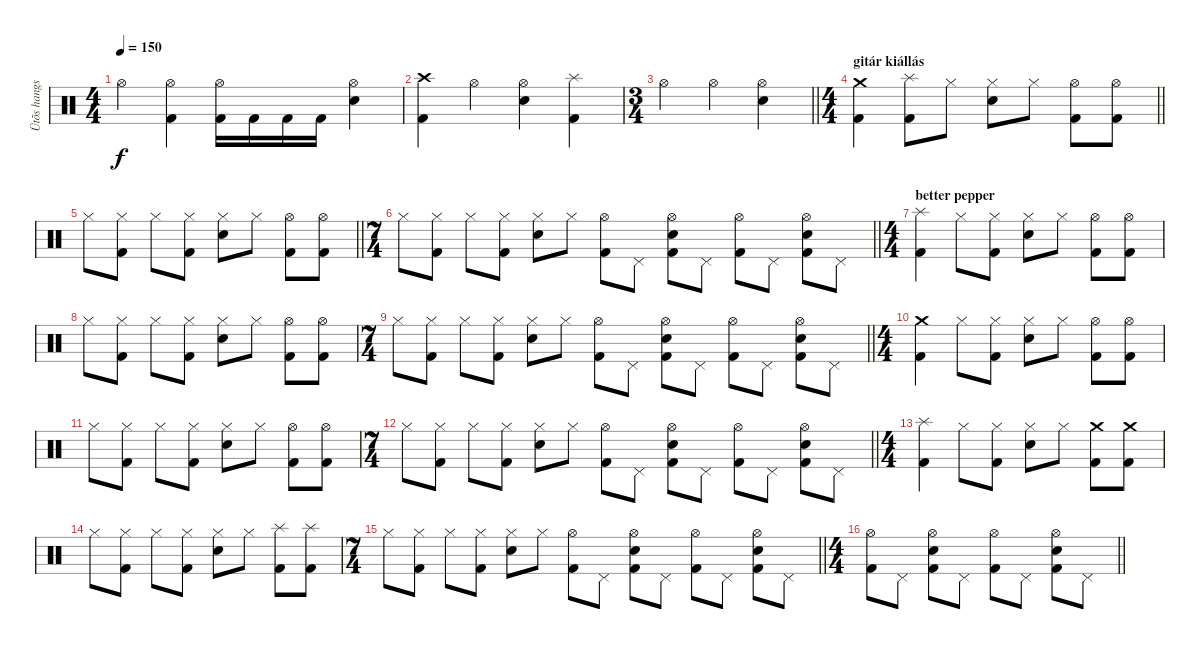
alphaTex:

\track ("Ütõs hangszer" "Ütõs hangs") {instrument percussion}
\staff {score}
\articulation defaults
\ts (4 4)
\tempo 150
\clef neutral
\ks c "Hi-Hat (open)".4{dy f}
("Hi-Hat (open)" "Kick (hit) 2").4 ("Hi-Hat (open)" "Kick (hit) 2").16 "Kick (hit) 2".16 "Kick (hit) 2".16 "Kick (hit) 2".16 ("Hi-Hat (open)" "Electric Snare (hit)").4 |
("Crash high (hit)" "Kick (hit) 2").4 "Hi-Hat (open)".4 ("Hi-Hat (open)" "Electric Snare (hit)").4 ("Splash (hit)" "Kick (hit) 2").4 |
\ts (3 4)
\barLineRight lightlight "Hi-Hat (open)".4 "Hi-Hat (open)".4
("Hi-Hat (open)" "Electric Snare (hit)").4 |
\ts (4 4)
\section ("" "gitár kiállás")
\barLineRight lightlight
("Crash medium (hit)" "Kick (hit) 2").4 ("Splash (hit)" "Kick (hit) 2").8 "Hi-Hat (closed)".8 ("Hi-Hat (closed)" "Electric Snare (hit)").8 "Hi-Hat (closed)".8 ("Hi-Hat (open)" "Kick (hit) 2").8 ("Hi-Hat (open)" "Kick (hit) 2").8 |
\barLineRight lightlight "Hi-Hat (closed)".8
("Hi-Hat (closed)" "Kick (hit) 2").8 "Hi-Hat (closed)".8 ("Hi-Hat (closed)" "Kick (hit) 2").8 ("Hi-Hat (closed)" "Electric Snare (hit)").8 "Hi-Hat (closed)".8 ("Hi-Hat (open)" "Kick (hit) 2").8 ("Hi-Hat (open)" "Kick (hit) 2").8 |
\ts (7 4)
\barLineRight lightlight "Hi-Hat (closed)".8
("Hi-Hat (closed)" "Kick (hit) 2").8 "Hi-Hat (closed)".8 ("Hi-Hat (closed)" "Kick (hit) 2").8 ("Hi-Hat (closed)" "Electric Snare (hit)").8 "Hi-Hat (closed)".8 ("Hi-Hat (open)" "Kick (hit) 2").8 "Pedal Hi-Hat (hit)".8 ("Hi-Hat (open)" "Electric Snare (hit)" "Kick (hit) 2").8 "Pedal Hi-Hat (hit)".8 ("Hi-Hat (open)" "Kick (hit) 2").8 "Pedal Hi-Hat (hit)".8 ("Hi-Hat (open)" "Electric Snare (hit)" "Kick (hit) 2").8 "Pedal Hi-Hat (hit)".8 |
\ts (4 4)
\section ("" "better pepper")
("Splash (hit)" "Kick (hit) 2").4 "Hi-Hat (closed)".8 ("Hi-Hat (closed)" "Kick (hit) 2").8 ("Hi-Hat (closed)" "Electric Snare (hit)").8 "Hi-Hat (closed)".8 ("Hi-Hat (open)" "Kick (hit) 2").8 ("Hi-Hat (open)" "Kick (hit) 2").8 |
"Hi-Hat (closed)".8 ("Hi-Hat (closed)" "Kick (hit) 2").8 "Hi-Hat (closed)".8 ("Hi-Hat (closed)" "Kick (hit) 2").8 ("Hi-Hat (closed)" "Electric Snare (hit)").8 "Hi-Hat (closed)".8 ("Hi-Hat (open)" "Kick (hit) 2").8 ("Hi-Hat (open)" "Kick (hit) 2").8 |
\ts (7 4)
\barLineRight lightlight "Hi-Hat (closed)".8
("Hi-Hat (closed)" "Kick (hit) 2").8 "Hi-Hat (closed)".8 ("Hi-Hat (closed)" "Kick (hit) 2").8 ("Hi-Hat (closed)" "Electric Snare (hit)").8 "Hi-Hat (closed)".8 ("Hi-Hat (open)" "Kick (hit) 2").8 "Pedal Hi-Hat (hit)".8 ("Hi-Hat (open)" "Electric Snare (hit)" "Kick (hit) 2").8 "Pedal Hi-Hat (hit)".8 ("Hi-Hat (open)" "Kick (hit) 2").8 "Pedal Hi-Hat (hit)".8 ("Hi-Hat (open)" "Electric Snare (hit)" "Kick (hit) 2").8 "Pedal Hi-Hat (hit)".8 |
\ts (4 4)
("Crash medium (hit)" "Kick (hit) 2").4 "Hi-Hat (closed)".8 ("Hi-Hat (closed)" "Kick (hit) 2").8 ("Hi-Hat (closed)" "Electric Snare (hit)").8 "Hi-Hat (closed)".8 ("Hi-Hat (open)" "Kick (hit) 2").8 ("Hi-Hat (open)" "Kick (hit) 2").8 |
"Hi-Hat (closed)".8 ("Hi-Hat (closed)" "Kick (hit) 2").8 "Hi-Hat (closed)".8 ("Hi-Hat (closed)" "Kick (hit) 2").8 ("Hi-Hat (closed)" "Electric Snare (hit)").8 "Hi-Hat (closed)".8 ("Hi-Hat (open)" "Kick (hit) 2").8 ("Hi-Hat (open)" "Kick (hit) 2").8 |
\ts (7 4)
\barLineRight lightlight "Hi-Hat (closed)".8
("Hi-Hat (closed)" "Kick (hit) 2").8 "Hi-Hat (closed)".8 ("Hi-Hat (closed)" "Kick (hit) 2").8 ("Hi-Hat (closed)" "Electric Snare (hit)").8 "Hi-Hat (closed)".8 ("Hi-Hat (open)" "Kick (hit) 2").8 "Pedal Hi-Hat (hit)".8 ("Hi-Hat (open)" "Electric Snare (hit)" "Kick (hit) 2").8 "Pedal Hi-Hat (hit)".8 ("Hi-Hat (open)" "Kick (hit) 2").8 "Pedal Hi-Hat (hit)".8 ("Hi-Hat (open)" "Electric Snare (hit)" "Kick (hit) 2").8 "Pedal Hi-Hat (hit)".8 |
\ts (4 4)
("Splash (hit)" "Kick (hit) 2").4 "Hi-Hat (closed)".8 ("Hi-Hat (closed)" "Kick (hit) 2").8 ("Hi-Hat (closed)" "Electric Snare (hit)").8 "Hi-Hat (closed)".8 ("Crash medium (hit)" "Kick (hit) 2").8 ("Crash medium (hit)" "Kick (hit) 2").8 |
"Hi-Hat (closed)".8 ("Hi-Hat (closed)" "Kick (hit) 2").8 "Hi-Hat (closed)".8 ("Hi-Hat (closed)" "Kick (hit) 2").8 ("Hi-Hat (closed)" "Electric Snare (hit)").8 "Hi-Hat (closed)".8 ("Splash (hit)" "Kick (hit) 2").8 ("Splash (hit)" "Kick (hit) 2").8 |
\ts (7 4)
\barLineRight lightlight "Hi-Hat (closed)".8
("Hi-Hat (closed)" "Kick (hit) 2").8 "Hi-Hat (closed)".8 ("Hi-Hat (closed)" "Kick (hit) 2").8 ("Hi-Hat (closed)" "Electric Snare (hit)").8 "Hi-Hat (closed)".8 ("Hi-Hat (open)" "Kick (hit) 2").8 "Pedal Hi-Hat (hit)".8 ("Hi-Hat (open)" "Electric Snare (hit)" "Kick (hit) 2").8 "Pedal Hi-Hat (hit)".8 ("Hi-Hat (open)" "Kick (hit) 2").8 "Pedal Hi-Hat (hit)".8 ("Hi-Hat (open)" "Electric Snare (hit)" "Kick (hit) 2").8 "Pedal Hi-Hat (hit)".8 |
\ts (4 4)
\barLineRight lightlight
("Hi-Hat (open)" "Kick (hit) 2").8 "Pedal Hi-Hat (hit)".8 ("Hi-Hat (open)" "Electric Snare (hit)" "Kick (hit) 2").8 "Pedal Hi-Hat (hit)".8 ("Hi-Hat (open)" "Kick (hit) 2").8 "Pedal Hi-Hat (hit)".8 ("Hi-Hat (open)" "Electric Snare (hit)" "Kick (hit) 2").8 "Pedal Hi-Hat (hit)".8
